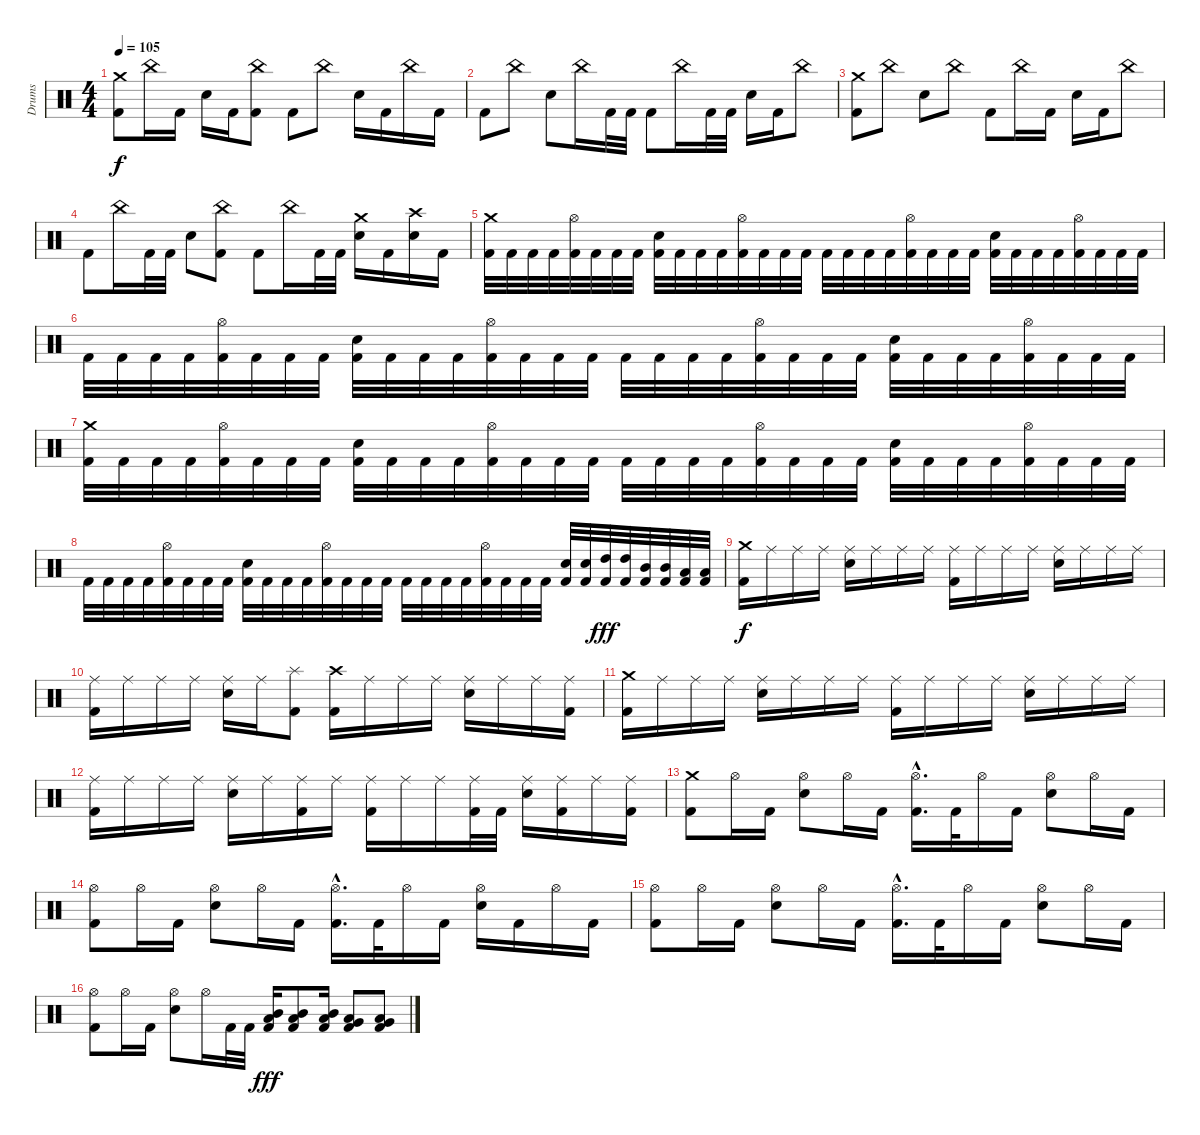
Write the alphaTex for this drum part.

\track ("Drums" "Drums") {instrument percussion}
\staff {score}
\articulation defaults
\ts (4 4)
\tempo 105
\clef neutral
\ks c
("Kick (hit) 2" "Crash medium (hit)").8{dy f} "China (hit)".16 "Kick (hit) 2".16 "Electric Snare (hit)".16 "Kick (hit) 2".16 ("Kick (hit) 2" "China (hit)").8 "Kick (hit) 2".8 "China (hit)".8 "Electric Snare (hit)".16 "Kick (hit) 2".16 "China (hit)".16 "Kick (hit) 2".16 |
"Kick (hit) 2".8 "China (hit)".8 "Electric Snare (hit)".8 "China (hit)".16 "Kick (hit) 2".32 "Kick (hit) 2".32 "Kick (hit) 2".8 "China (hit)".16 "Kick (hit) 2".32 "Kick (hit) 2".32 "Electric Snare (hit)".16 "Kick (hit) 2".16 "China (hit)".8 |
("Kick (hit) 2" "Crash medium (hit)").8 "China (hit)".8 "Electric Snare (hit)".8 "China (hit)".8 "Kick (hit) 2".8 "China (hit)".16 "Kick (hit) 2".16 "Electric Snare (hit)".16 "Kick (hit) 2".16 "China (hit)".8 |
"Kick (hit) 2".8 "China (hit)".16 "Kick (hit) 2".32 "Kick (hit) 2".32 "Electric Snare (hit)".8 ("Kick (hit) 2" "China (hit)").8 "Kick (hit) 2".8 "China (hit)".16 "Kick (hit) 2".32 "Kick (hit) 2".32 ("Electric Snare (hit)" "Crash medium (hit)").16 "Kick (hit) 2".16 ("Electric Snare (hit)" "Crash high (hit)").16 "Kick (hit) 2".16 |
("Kick (hit) 2" "Crash medium (hit)").32 "Kick (hit) 2".32 "Kick (hit) 2".32 "Kick (hit) 2".32 ("Kick (hit) 2" "Hi-Hat (open)").32 "Kick (hit) 2".32 "Kick (hit) 2".32 "Kick (hit) 2".32 ("Kick (hit) 2" "Electric Snare (hit)").32 "Kick (hit) 2".32 "Kick (hit) 2".32 "Kick (hit) 2".32 ("Kick (hit) 2" "Hi-Hat (open)").32 "Kick (hit) 2".32 "Kick (hit) 2".32 "Kick (hit) 2".32 "Kick (hit) 2".32 "Kick (hit) 2".32 "Kick (hit) 2".32 "Kick (hit) 2".32 ("Kick (hit) 2" "Hi-Hat (open)").32 "Kick (hit) 2".32 "Kick (hit) 2".32 "Kick (hit) 2".32 ("Kick (hit) 2" "Electric Snare (hit)").32 "Kick (hit) 2".32 "Kick (hit) 2".32 "Kick (hit) 2".32 ("Kick (hit) 2" "Hi-Hat (open)").32 "Kick (hit) 2".32 "Kick (hit) 2".32 "Kick (hit) 2".32 |
"Kick (hit) 2".32 "Kick (hit) 2".32 "Kick (hit) 2".32 "Kick (hit) 2".32 ("Kick (hit) 2" "Hi-Hat (open)").32 "Kick (hit) 2".32 "Kick (hit) 2".32 "Kick (hit) 2".32 ("Kick (hit) 2" "Electric Snare (hit)").32 "Kick (hit) 2".32 "Kick (hit) 2".32 "Kick (hit) 2".32 ("Kick (hit) 2" "Hi-Hat (open)").32 "Kick (hit) 2".32 "Kick (hit) 2".32 "Kick (hit) 2".32 "Kick (hit) 2".32 "Kick (hit) 2".32 "Kick (hit) 2".32 "Kick (hit) 2".32 ("Kick (hit) 2" "Hi-Hat (open)").32 "Kick (hit) 2".32 "Kick (hit) 2".32 "Kick (hit) 2".32 ("Kick (hit) 2" "Electric Snare (hit)").32 "Kick (hit) 2".32 "Kick (hit) 2".32 "Kick (hit) 2".32 ("Kick (hit) 2" "Hi-Hat (open)").32 "Kick (hit) 2".32 "Kick (hit) 2".32 "Kick (hit) 2".32 |
("Kick (hit) 2" "Crash medium (hit)").32 "Kick (hit) 2".32 "Kick (hit) 2".32 "Kick (hit) 2".32 ("Kick (hit) 2" "Hi-Hat (open)").32 "Kick (hit) 2".32 "Kick (hit) 2".32 "Kick (hit) 2".32 ("Kick (hit) 2" "Electric Snare (hit)").32 "Kick (hit) 2".32 "Kick (hit) 2".32 "Kick (hit) 2".32 ("Kick (hit) 2" "Hi-Hat (open)").32 "Kick (hit) 2".32 "Kick (hit) 2".32 "Kick (hit) 2".32 "Kick (hit) 2".32 "Kick (hit) 2".32 "Kick (hit) 2".32 "Kick (hit) 2".32 ("Kick (hit) 2" "Hi-Hat (open)").32 "Kick (hit) 2".32 "Kick (hit) 2".32 "Kick (hit) 2".32 ("Kick (hit) 2" "Electric Snare (hit)").32 "Kick (hit) 2".32 "Kick (hit) 2".32 "Kick (hit) 2".32 ("Kick (hit) 2" "Hi-Hat (open)").32 "Kick (hit) 2".32 "Kick (hit) 2".32 "Kick (hit) 2".32 |
"Kick (hit) 2".32 "Kick (hit) 2".32 "Kick (hit) 2".32 "Kick (hit) 2".32 ("Kick (hit) 2" "Hi-Hat (open)").32 "Kick (hit) 2".32 "Kick (hit) 2".32 "Kick (hit) 2".32 ("Kick (hit) 2" "Electric Snare (hit)").32 "Kick (hit) 2".32 "Kick (hit) 2".32 "Kick (hit) 2".32 ("Kick (hit) 2" "Hi-Hat (open)").32 "Kick (hit) 2".32 "Kick (hit) 2".32 "Kick (hit) 2".32 "Kick (hit) 2".32 "Kick (hit) 2".32 "Kick (hit) 2".32 "Kick (hit) 2".32 ("Kick (hit) 2" "Hi-Hat (open)").32 "Kick (hit) 2".32 "Kick (hit) 2".32 "Kick (hit) 2".32 ("Kick (hit) 2" "Electric Snare (hit)").32 ("Kick (hit) 2" "Electric Snare (hit)").32 ("Kick (hit) 2" "High Tom (hit)").32{dy fff} ("Kick (hit) 2" "High Tom (hit)").32 ("Kick (hit) 2" "Mid Tom (hit)").32 ("Kick (hit) 2" "Mid Tom (hit)").32 ("Kick (hit) 2" "Low Tom (hit)").32 ("Kick (hit) 2" "Low Tom (hit)").32 |
("Kick (hit) 2" "Crash medium (hit)").16{dy f} "Ride (middle)".16 "Ride (middle)".16 "Ride (middle)".16 ("Electric Snare (hit)" "Ride (middle)").16 "Ride (middle)".16 "Ride (middle)".16 "Ride (middle)".16 ("Kick (hit) 2" "Ride (middle)").16 "Ride (middle)".16 "Ride (middle)".16 "Ride (middle)".16 ("Electric Snare (hit)" "Ride (middle)").16 "Ride (middle)".16 "Ride (middle)".16 "Ride (middle)".16 |
("Kick (hit) 2" "Ride (middle)").16 "Ride (middle)".16 "Ride (middle)".16 "Ride (middle)".16 ("Electric Snare (hit)" "Ride (middle)").16 "Ride (middle)".16 ("Kick (hit) 2" "Splash (hit)").8 ("Kick (hit) 2" "Crash high (hit)").16 "Ride (middle)".16 "Ride (middle)".16 "Ride (middle)".16 ("Electric Snare (hit)" "Ride (middle)").16 "Ride (middle)".16 "Ride (middle)".16 ("Kick (hit) 2" "Ride (middle)").16 |
("Kick (hit) 2" "Crash medium (hit)").16 "Ride (middle)".16 "Ride (middle)".16 "Ride (middle)".16 ("Electric Snare (hit)" "Ride (middle)").16 "Ride (middle)".16 "Ride (middle)".16 "Ride (middle)".16 ("Kick (hit) 2" "Ride (middle)").16 "Ride (middle)".16 "Ride (middle)".16 "Ride (middle)".16 ("Electric Snare (hit)" "Ride (middle)").16 "Ride (middle)".16 "Ride (middle)".16 "Ride (middle)".16 |
("Kick (hit) 2" "Ride (middle)").16 "Ride (middle)".16 "Ride (middle)".16 "Ride (middle)".16 ("Electric Snare (hit)" "Ride (middle)").16 "Ride (middle)".16 ("Kick (hit) 2" "Ride (middle)").16 "Ride (middle)".16 ("Kick (hit) 2" "Ride (middle)").16 "Ride (middle)".16 "Ride (middle)".16 ("Kick (hit) 2" "Ride (middle)").32 "Kick (hit) 2".32 ("Electric Snare (hit)" "Ride (middle)").16 ("Kick (hit) 2" "Ride (middle)").16 "Ride (middle)".16 ("Kick (hit) 2" "Ride (middle)").16 |
("Kick (hit) 2" "Crash medium (hit)").8 "Hi-Hat (open)".16 "Kick (hit) 2".16 ("Electric Snare (hit)" "Hi-Hat (open)").8 "Hi-Hat (open)".16 "Kick (hit) 2".16 ("Kick (hit) 2"{hac} "Hi-Hat (open)"{hac}).16{d} "Kick (hit) 2".32 "Hi-Hat (open)".16 "Kick (hit) 2".16 ("Electric Snare (hit)" "Hi-Hat (open)").8 "Hi-Hat (open)".16 "Kick (hit) 2".16 |
("Kick (hit) 2" "Hi-Hat (open)").8 "Hi-Hat (open)".16 "Kick (hit) 2".16 ("Electric Snare (hit)" "Hi-Hat (open)").8 "Hi-Hat (open)".16 "Kick (hit) 2".16 ("Kick (hit) 2"{hac} "Hi-Hat (open)"{hac}).16{d} "Kick (hit) 2".32 "Hi-Hat (open)".16 "Kick (hit) 2".16 ("Electric Snare (hit)" "Hi-Hat (open)").16 "Kick (hit) 2".16 "Hi-Hat (open)".16 "Kick (hit) 2".16 |
("Kick (hit) 2" "Hi-Hat (open)").8 "Hi-Hat (open)".16 "Kick (hit) 2".16 ("Electric Snare (hit)" "Hi-Hat (open)").8 "Hi-Hat (open)".16 "Kick (hit) 2".16 ("Kick (hit) 2"{hac} "Hi-Hat (open)"{hac}).16{d} "Kick (hit) 2".32 "Hi-Hat (open)".16 "Kick (hit) 2".16 ("Electric Snare (hit)" "Hi-Hat (open)").8 "Hi-Hat (open)".16 "Kick (hit) 2".16 |
("Kick (hit) 2" "Hi-Hat (open)").8 "Hi-Hat (open)".16 "Kick (hit) 2".16 ("Electric Snare (hit)" "Hi-Hat (open)").8 "Hi-Hat (open)".16 "Kick (hit) 2".32 "Kick (hit) 2".32 ("Kick (hit) 2" "Low Tom (hit)" "Mid Tom (hit)").16{dy fff} ("Kick (hit) 2" "Low Tom (hit)" "Mid Tom (hit)").8 ("Kick (hit) 2" "Low Tom (hit)" "Mid Tom (hit)").16 ("Kick (hit) 2" "Very Low Tom (hit)" "Low Tom (hit)").8 ("Kick (hit) 2" "Very Low Tom (hit)" "Low Tom (hit)").8
